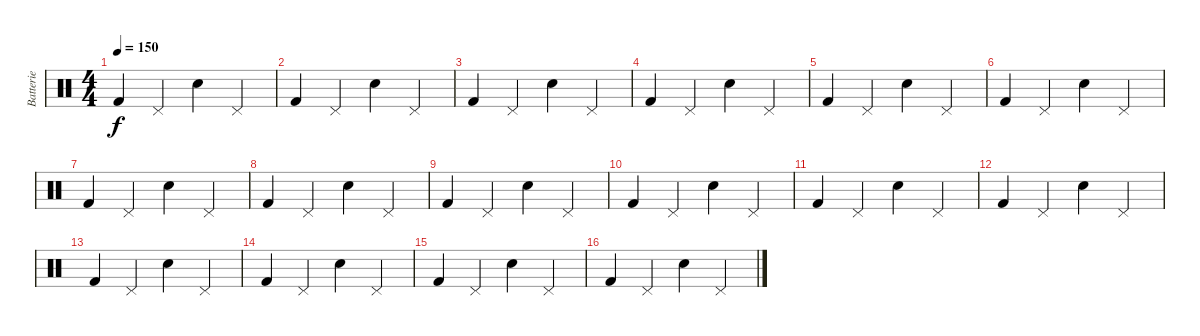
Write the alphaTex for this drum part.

\track ("Batterie" "Batterie") {instrument percussion}
\staff {score}
\articulation defaults
\ts (4 4)
\tempo 150
\clef neutral
\ks c "Kick (hit) 2".4{dy f} "Pedal Hi-Hat (hit)".4 "Electric Snare (hit)".4 "Pedal Hi-Hat (hit)".4
|
"Kick (hit) 2".4 "Pedal Hi-Hat (hit)".4 "Electric Snare (hit)".4 "Pedal Hi-Hat (hit)".4 |
"Kick (hit) 2".4 "Pedal Hi-Hat (hit)".4 "Electric Snare (hit)".4 "Pedal Hi-Hat (hit)".4 |
"Kick (hit) 2".4 "Pedal Hi-Hat (hit)".4 "Electric Snare (hit)".4 "Pedal Hi-Hat (hit)".4 |
"Kick (hit) 2".4 "Pedal Hi-Hat (hit)".4 "Electric Snare (hit)".4 "Pedal Hi-Hat (hit)".4 |
"Kick (hit) 2".4 "Pedal Hi-Hat (hit)".4 "Electric Snare (hit)".4 "Pedal Hi-Hat (hit)".4 |
"Kick (hit) 2".4 "Pedal Hi-Hat (hit)".4 "Electric Snare (hit)".4 "Pedal Hi-Hat (hit)".4 |
"Kick (hit) 2".4 "Pedal Hi-Hat (hit)".4 "Electric Snare (hit)".4 "Pedal Hi-Hat (hit)".4 |
"Kick (hit) 2".4 "Pedal Hi-Hat (hit)".4 "Electric Snare (hit)".4 "Pedal Hi-Hat (hit)".4 |
"Kick (hit) 2".4 "Pedal Hi-Hat (hit)".4 "Electric Snare (hit)".4 "Pedal Hi-Hat (hit)".4 |
"Kick (hit) 2".4 "Pedal Hi-Hat (hit)".4 "Electric Snare (hit)".4 "Pedal Hi-Hat (hit)".4 |
"Kick (hit) 2".4 "Pedal Hi-Hat (hit)".4 "Electric Snare (hit)".4 "Pedal Hi-Hat (hit)".4 |
"Kick (hit) 2".4 "Pedal Hi-Hat (hit)".4 "Electric Snare (hit)".4 "Pedal Hi-Hat (hit)".4 |
"Kick (hit) 2".4 "Pedal Hi-Hat (hit)".4 "Electric Snare (hit)".4 "Pedal Hi-Hat (hit)".4 |
"Kick (hit) 2".4 "Pedal Hi-Hat (hit)".4 "Electric Snare (hit)".4 "Pedal Hi-Hat (hit)".4 |
"Kick (hit) 2".4 "Pedal Hi-Hat (hit)".4 "Electric Snare (hit)".4 "Pedal Hi-Hat (hit)".4
